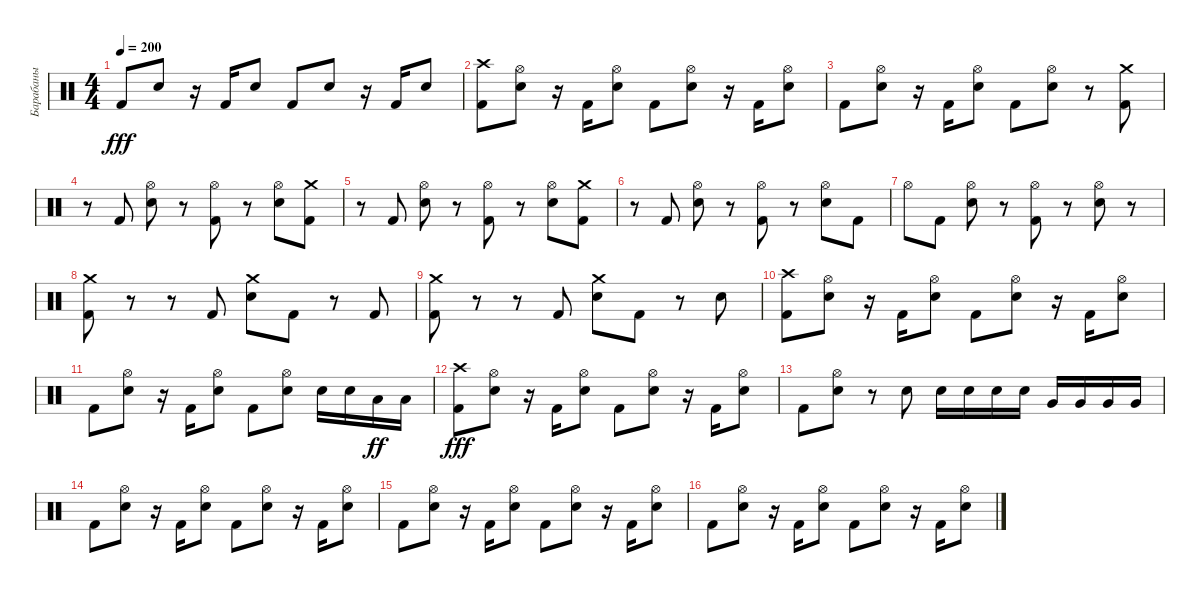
\track ("Барабаны" "Барабаны") {instrument percussion}
\staff {score}
\articulation defaults
\ts (4 4)
\tempo 200
\clef neutral
\ks c "Kick (hit) 2".8{dy fff} "Snare (hit) 2".8
r.16 "Kick (hit) 2".16 "Snare (hit) 2".8 "Kick (hit) 2".8 "Snare (hit) 2".8 r.16 "Kick (hit) 2".16 "Snare (hit) 2".8 |
("Kick (hit) 2" "Crash high (hit)").8 ("Snare (hit) 2" "Hi-Hat (open)").8 r.16 "Kick (hit) 2".16 ("Snare (hit) 2" "Hi-Hat (open)").8 "Kick (hit) 2".8 ("Snare (hit) 2" "Hi-Hat (open)").8 r.16 "Kick (hit) 2".16 ("Snare (hit) 2" "Hi-Hat (open)").8 |
"Kick (hit) 2".8 ("Snare (hit) 2" "Hi-Hat (open)").8 r.16 "Kick (hit) 2".16 ("Snare (hit) 2" "Hi-Hat (open)").8 "Kick (hit) 2".8 ("Snare (hit) 2" "Hi-Hat (open)").8 r.8 ("Crash medium (hit)" "Kick (hit) 2").8 |
r.8 "Kick (hit) 2".8 ("Hi-Hat (open)" "Snare (hit) 2").8 r.8 ("Hi-Hat (open)" "Kick (hit) 2").8 r.8 ("Hi-Hat (open)" "Snare (hit) 2").8 ("Crash medium (hit)" "Kick (hit) 2").8 |
r.8 "Kick (hit) 2".8 ("Hi-Hat (open)" "Snare (hit) 2").8 r.8 ("Hi-Hat (open)" "Kick (hit) 2").8 r.8 ("Hi-Hat (open)" "Snare (hit) 2").8 ("Crash medium (hit)" "Kick (hit) 2").8 |
r.8 "Kick (hit) 2".8 ("Hi-Hat (open)" "Snare (hit) 2").8 r.8 ("Hi-Hat (open)" "Kick (hit) 2").8 r.8 ("Hi-Hat (open)" "Snare (hit) 2").8 "Kick (hit) 2".8 |
"Hi-Hat (open)".8 "Kick (hit) 2".8 ("Hi-Hat (open)" "Snare (hit) 2").8 r.8 ("Hi-Hat (open)" "Kick (hit) 2").8 r.8 ("Hi-Hat (open)" "Snare (hit) 2").8 r.8 |
("Crash medium (hit)" "Kick (hit) 2").8 r.8 r.8 "Kick (hit) 2".8 ("Crash medium (hit)" "Snare (hit) 2").8 "Kick (hit) 2".8 r.8 "Kick (hit) 2".8 |
("Crash medium (hit)" "Kick (hit) 2").8 r.8 r.8 "Kick (hit) 2".8 ("Crash medium (hit)" "Snare (hit) 2").8 "Kick (hit) 2".8 r.8 "Snare (hit) 2".8 |
("Kick (hit) 2" "Crash high (hit)").8 ("Snare (hit) 2" "Hi-Hat (open)").8 r.16 "Kick (hit) 2".16 ("Snare (hit) 2" "Hi-Hat (open)").8 "Kick (hit) 2".8 ("Snare (hit) 2" "Hi-Hat (open)").8 r.16 "Kick (hit) 2".16 ("Snare (hit) 2" "Hi-Hat (open)").8 |
"Kick (hit) 2".8 ("Snare (hit) 2" "Hi-Hat (open)").8 r.16 "Kick (hit) 2".16 ("Snare (hit) 2" "Hi-Hat (open)").8 "Kick (hit) 2".8 ("Snare (hit) 2" "Hi-Hat (open)").8 "Snare (hit) 2".16 "Snare (hit) 2".16 "Low Tom (hit)".16{dy ff} "Low Tom (hit)".16 |
("Kick (hit) 2" "Crash high (hit)").8{dy fff} ("Snare (hit) 2" "Hi-Hat (open)").8 r.16 "Kick (hit) 2".16 ("Snare (hit) 2" "Hi-Hat (open)").8 "Kick (hit) 2".8 ("Snare (hit) 2" "Hi-Hat (open)").8 r.16 "Kick (hit) 2".16 ("Snare (hit) 2" "Hi-Hat (open)").8 |
"Kick (hit) 2".8 ("Snare (hit) 2" "Hi-Hat (open)").8 r.8 "Snare (hit) 2".8 "Snare (hit) 2".16 "Snare (hit) 2".16 "Snare (hit) 2".16 "Snare (hit) 2".16 "Very Low Tom (hit)".16 "Very Low Tom (hit)".16 "Very Low Tom (hit)".16 "Very Low Tom (hit)".16 |
"Kick (hit) 2".8 ("Snare (hit) 2" "Hi-Hat (open)").8 r.16 "Kick (hit) 2".16 ("Snare (hit) 2" "Hi-Hat (open)").8 "Kick (hit) 2".8 ("Snare (hit) 2" "Hi-Hat (open)").8 r.16 "Kick (hit) 2".16 ("Snare (hit) 2" "Hi-Hat (open)").8 |
"Kick (hit) 2".8 ("Snare (hit) 2" "Hi-Hat (open)").8 r.16 "Kick (hit) 2".16 ("Snare (hit) 2" "Hi-Hat (open)").8 "Kick (hit) 2".8 ("Snare (hit) 2" "Hi-Hat (open)").8 r.16 "Kick (hit) 2".16 ("Snare (hit) 2" "Hi-Hat (open)").8 |
"Kick (hit) 2".8 ("Snare (hit) 2" "Hi-Hat (open)").8 r.16 "Kick (hit) 2".16 ("Snare (hit) 2" "Hi-Hat (open)").8 "Kick (hit) 2".8 ("Snare (hit) 2" "Hi-Hat (open)").8 r.16 "Kick (hit) 2".16 ("Snare (hit) 2" "Hi-Hat (open)").8
